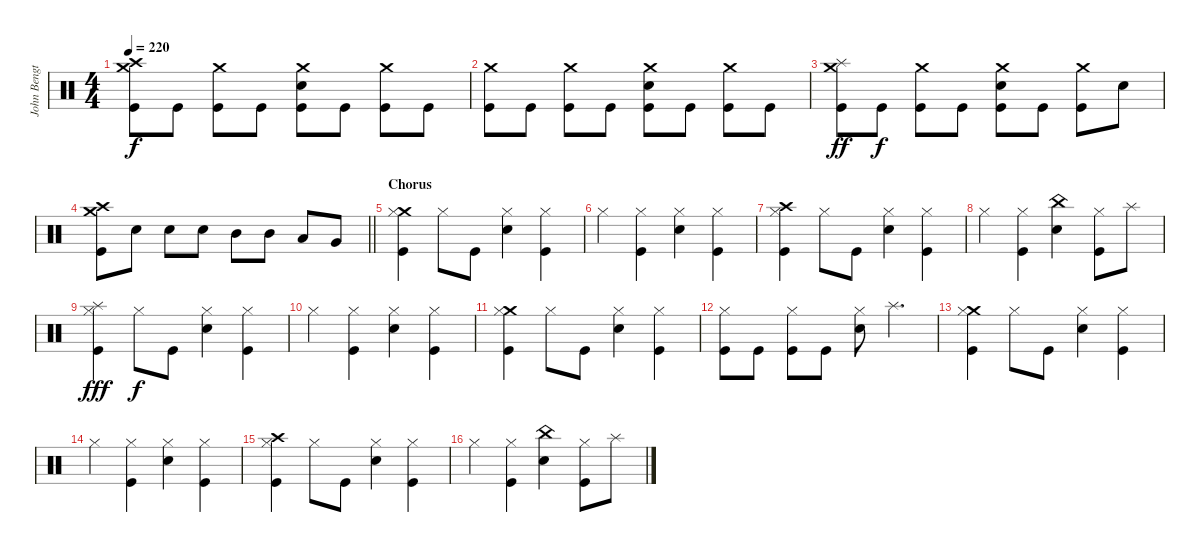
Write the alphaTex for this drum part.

\track ("John Bengtsson" "John Bengt") {instrument percussion}
\staff {score}
\articulation defaults
\ts (4 4)
\tempo 220
\clef neutral
\ks c
("Crash medium (hit)" "Crash high (hit)" "Kick (hit)").8{dy f} "Kick (hit)".8 ("Crash medium (hit)" "Kick (hit)").8 "Kick (hit)".8 ("Crash medium (hit)" "Snare (hit) 2" "Kick (hit)").8 "Kick (hit)".8 ("Crash medium (hit)" "Kick (hit)").8 "Kick (hit)".8 |
("Crash medium (hit)" "Kick (hit)").8 "Kick (hit)".8 ("Crash medium (hit)" "Kick (hit)").8 "Kick (hit)".8 ("Crash medium (hit)" "Snare (hit) 2" "Kick (hit)").8 "Kick (hit)".8 ("Crash medium (hit)" "Kick (hit)").8 "Kick (hit)".8 |
("Crash medium (hit)" "Splash (hit)" "Kick (hit)").8{dy ff} "Kick (hit)".8{dy f} ("Crash medium (hit)" "Kick (hit)").8 "Kick (hit)".8 ("Crash medium (hit)" "Snare (hit) 2" "Kick (hit)").8 "Kick (hit)".8 ("Crash medium (hit)" "Kick (hit)").8 "Snare (hit) 2".8 |
\barLineRight lightlight
("Crash medium (hit)" "Crash high (hit)" "Kick (hit)").8 "Snare (hit) 2".8 "Snare (hit) 2".8 "Snare (hit) 2".8 "Mid Tom (hit)".8 "Mid Tom (hit)".8 "Low Tom (hit)".8 "Very Low Tom (hit)".8 |
\section ("" "Chorus")
("Crash medium (hit)" "Hi-Hat (closed)" "Kick (hit)").4 "Hi-Hat (closed)".8 "Kick (hit)".8 ("Hi-Hat (closed)" "Snare (hit) 2").4 ("Hi-Hat (closed)" "Kick (hit)").4 |
"Hi-Hat (closed)".4 ("Hi-Hat (closed)" "Kick (hit)").4 ("Hi-Hat (closed)" "Snare (hit) 2").4 ("Hi-Hat (closed)" "Kick (hit)").4 |
("Crash high (hit)" "Hi-Hat (closed)" "Kick (hit)").4 "Hi-Hat (closed)".8 "Kick (hit)".8 ("Hi-Hat (closed)" "Snare (hit) 2").4 ("Hi-Hat (closed)" "Kick (hit)").4 |
"Hi-Hat (closed)".4 ("Hi-Hat (closed)" "Kick (hit)").4 ("China (hit)" "Snare (hit) 2").4 ("Hi-Hat (closed)" "Kick (hit)").8 "Splash (hit)".8 |
("Splash (hit)" "Hi-Hat (closed)" "Kick (hit)").4{dy fff} "Hi-Hat (closed)".8{dy f} "Kick (hit)".8 ("Hi-Hat (closed)" "Snare (hit) 2").4 ("Hi-Hat (closed)" "Kick (hit)").4 |
"Hi-Hat (closed)".4 ("Hi-Hat (closed)" "Kick (hit)").4 ("Hi-Hat (closed)" "Snare (hit) 2").4 ("Hi-Hat (closed)" "Kick (hit)").4 |
("Crash medium (hit)" "Hi-Hat (closed)" "Kick (hit)").4 "Hi-Hat (closed)".8 "Kick (hit)".8 ("Hi-Hat (closed)" "Snare (hit) 2").4 ("Hi-Hat (closed)" "Kick (hit)").4 |
("Hi-Hat (closed)" "Kick (hit)").8 "Kick (hit)".8 ("Hi-Hat (closed)" "Kick (hit)").8 "Kick (hit)".8 ("Hi-Hat (closed)" "Snare (hit) 2").8 "Splash (hit)".4{d} |
("Crash medium (hit)" "Hi-Hat (closed)" "Kick (hit)").4 "Hi-Hat (closed)".8 "Kick (hit)".8 ("Hi-Hat (closed)" "Snare (hit) 2").4 ("Hi-Hat (closed)" "Kick (hit)").4 |
"Hi-Hat (closed)".4 ("Hi-Hat (closed)" "Kick (hit)").4 ("Hi-Hat (closed)" "Snare (hit) 2").4 ("Hi-Hat (closed)" "Kick (hit)").4 |
("Crash high (hit)" "Hi-Hat (closed)" "Kick (hit)").4 "Hi-Hat (closed)".8 "Kick (hit)".8 ("Hi-Hat (closed)" "Snare (hit) 2").4 ("Hi-Hat (closed)" "Kick (hit)").4 |
"Hi-Hat (closed)".4 ("Hi-Hat (closed)" "Kick (hit)").4 ("China (hit)" "Snare (hit) 2").4 ("Hi-Hat (closed)" "Kick (hit)").8 "Splash (hit)".8
